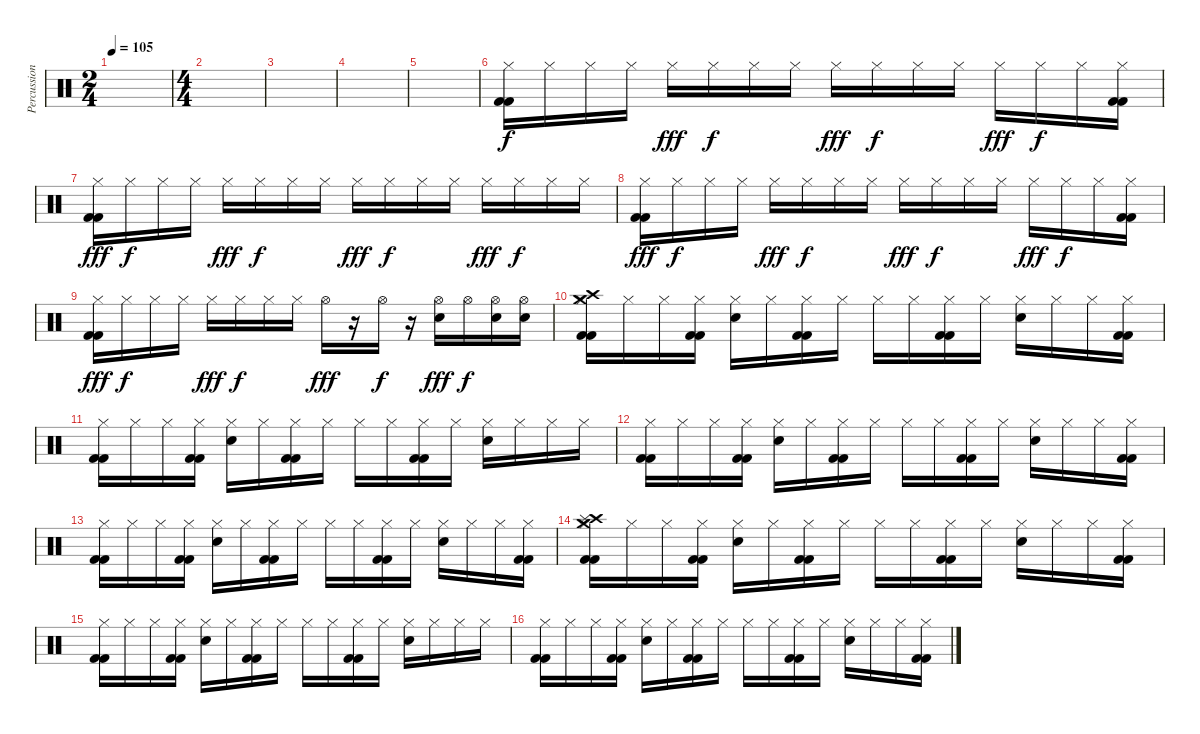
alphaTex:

\track ("Percussion" "Percussion") {instrument percussion}
\staff {score}
\articulation defaults
\ts (2 4)
\tempo 105
\clef neutral
\ks c
|
\ts (4 4)
|
|
|
|
("Kick (hit) 2" "Hi-Hat (closed)" "Kick (hit) 2").16 "Hi-Hat (closed)".16{dy f} "Hi-Hat (closed)".16 "Hi-Hat (closed)".16 "Hi-Hat (closed)".16{dy fff} "Hi-Hat (closed)".16{dy f} "Hi-Hat (closed)".16 "Hi-Hat (closed)".16 "Hi-Hat (closed)".16{dy fff} "Hi-Hat (closed)".16{dy f} "Hi-Hat (closed)".16 "Hi-Hat (closed)".16 "Hi-Hat (closed)".16{dy fff} "Hi-Hat (closed)".16{dy f} "Hi-Hat (closed)".16 ("Kick (hit) 2" "Hi-Hat (closed)" "Kick (hit) 2").16 |
("Kick (hit) 2" "Hi-Hat (closed)" "Kick (hit) 2").16{dy fff} "Hi-Hat (closed)".16{dy f} "Hi-Hat (closed)".16 "Hi-Hat (closed)".16 "Hi-Hat (closed)".16{dy fff} "Hi-Hat (closed)".16{dy f} "Hi-Hat (closed)".16 "Hi-Hat (closed)".16 "Hi-Hat (closed)".16{dy fff} "Hi-Hat (closed)".16{dy f} "Hi-Hat (closed)".16 "Hi-Hat (closed)".16 "Hi-Hat (closed)".16{dy fff} "Hi-Hat (closed)".16{dy f} "Hi-Hat (closed)".16 "Hi-Hat (closed)".16 |
("Kick (hit) 2" "Hi-Hat (closed)" "Kick (hit) 2").16{dy fff} "Hi-Hat (closed)".16{dy f} "Hi-Hat (closed)".16 "Hi-Hat (closed)".16 "Hi-Hat (closed)".16{dy fff} "Hi-Hat (closed)".16{dy f} "Hi-Hat (closed)".16 "Hi-Hat (closed)".16 "Hi-Hat (closed)".16{dy fff} "Hi-Hat (closed)".16{dy f} "Hi-Hat (closed)".16 "Hi-Hat (closed)".16 "Hi-Hat (closed)".16{dy fff} "Hi-Hat (closed)".16{dy f} "Hi-Hat (closed)".16 ("Kick (hit) 2" "Hi-Hat (closed)" "Kick (hit) 2").16 |
("Kick (hit) 2" "Hi-Hat (closed)" "Kick (hit) 2").16{dy fff} "Hi-Hat (closed)".16{dy f} "Hi-Hat (closed)".16 "Hi-Hat (closed)".16 "Hi-Hat (closed)".16{dy fff} "Hi-Hat (closed)".16{dy f} "Hi-Hat (closed)".16 "Hi-Hat (closed)".16 "Hi-Hat (open)".16{dy fff} r.16 "Hi-Hat (open)".16{dy f} r.16 ("Electric Snare (hit)" "Hi-Hat (open)").16{dy fff} "Hi-Hat (open)".16{dy f} ("Electric Snare (hit)" "Hi-Hat (open)").16 ("Electric Snare (hit)" "Hi-Hat (open)").16 |
("Hi-Hat (closed)" "Crash high (hit)" "Crash medium (hit)" "Kick (hit) 2" "Kick (hit) 2").16 "Hi-Hat (closed)".16 "Hi-Hat (closed)".16 ("Hi-Hat (closed)" "Kick (hit) 2" "Kick (hit) 2").16 ("Hi-Hat (closed)" "Electric Snare (hit)").16 "Hi-Hat (closed)".16 ("Hi-Hat (closed)" "Kick (hit) 2" "Kick (hit) 2").16 "Hi-Hat (closed)".16 "Hi-Hat (closed)".16 "Hi-Hat (closed)".16 ("Hi-Hat (closed)" "Kick (hit) 2" "Kick (hit) 2").16 "Hi-Hat (closed)".16 ("Hi-Hat (closed)" "Electric Snare (hit)").16 "Hi-Hat (closed)".16 "Hi-Hat (closed)".16 ("Hi-Hat (closed)" "Kick (hit) 2" "Kick (hit) 2").16 |
("Hi-Hat (closed)" "Kick (hit) 2" "Kick (hit) 2").16 "Hi-Hat (closed)".16 "Hi-Hat (closed)".16 ("Hi-Hat (closed)" "Kick (hit) 2" "Kick (hit) 2").16 ("Hi-Hat (closed)" "Electric Snare (hit)").16 "Hi-Hat (closed)".16 ("Hi-Hat (closed)" "Kick (hit) 2" "Kick (hit) 2").16 "Hi-Hat (closed)".16 "Hi-Hat (closed)".16 "Hi-Hat (closed)".16 ("Hi-Hat (closed)" "Kick (hit) 2" "Kick (hit) 2").16 "Hi-Hat (closed)".16 ("Hi-Hat (closed)" "Electric Snare (hit)").16 "Hi-Hat (closed)".16 "Hi-Hat (closed)".16 "Hi-Hat (closed)".16 |
("Hi-Hat (closed)" "Kick (hit) 2" "Kick (hit) 2").16 "Hi-Hat (closed)".16 "Hi-Hat (closed)".16 ("Hi-Hat (closed)" "Kick (hit) 2" "Kick (hit) 2").16 ("Hi-Hat (closed)" "Electric Snare (hit)").16 "Hi-Hat (closed)".16 ("Hi-Hat (closed)" "Kick (hit) 2" "Kick (hit) 2").16 "Hi-Hat (closed)".16 "Hi-Hat (closed)".16 "Hi-Hat (closed)".16 ("Hi-Hat (closed)" "Kick (hit) 2" "Kick (hit) 2").16 "Hi-Hat (closed)".16 ("Hi-Hat (closed)" "Electric Snare (hit)").16 "Hi-Hat (closed)".16 "Hi-Hat (closed)".16 ("Hi-Hat (closed)" "Kick (hit) 2" "Kick (hit) 2").16 |
("Hi-Hat (closed)" "Kick (hit) 2" "Kick (hit) 2").16 "Hi-Hat (closed)".16 "Hi-Hat (closed)".16 ("Hi-Hat (closed)" "Kick (hit) 2" "Kick (hit) 2").16 ("Hi-Hat (closed)" "Electric Snare (hit)").16 "Hi-Hat (closed)".16 ("Hi-Hat (closed)" "Kick (hit) 2" "Kick (hit) 2").16 "Hi-Hat (closed)".16 "Hi-Hat (closed)".16 "Hi-Hat (closed)".16 ("Hi-Hat (closed)" "Kick (hit) 2" "Kick (hit) 2").16 "Hi-Hat (closed)".16 ("Hi-Hat (closed)" "Electric Snare (hit)").16 "Hi-Hat (closed)".16 "Hi-Hat (closed)".16 ("Hi-Hat (closed)" "Kick (hit) 2" "Kick (hit) 2").16 |
("Hi-Hat (closed)" "Crash medium (hit)" "Crash high (hit)" "Splash (hit)" "Kick (hit) 2" "Kick (hit) 2").16 "Hi-Hat (closed)".16 "Hi-Hat (closed)".16 ("Hi-Hat (closed)" "Kick (hit) 2" "Kick (hit) 2").16 ("Hi-Hat (closed)" "Electric Snare (hit)").16 "Hi-Hat (closed)".16 ("Hi-Hat (closed)" "Kick (hit) 2" "Kick (hit) 2").16 "Hi-Hat (closed)".16 "Hi-Hat (closed)".16 "Hi-Hat (closed)".16 ("Hi-Hat (closed)" "Kick (hit) 2" "Kick (hit) 2").16 "Hi-Hat (closed)".16 ("Hi-Hat (closed)" "Electric Snare (hit)").16 "Hi-Hat (closed)".16 "Hi-Hat (closed)".16 ("Hi-Hat (closed)" "Kick (hit) 2" "Kick (hit) 2").16 |
("Hi-Hat (closed)" "Kick (hit) 2" "Kick (hit) 2").16 "Hi-Hat (closed)".16 "Hi-Hat (closed)".16 ("Hi-Hat (closed)" "Kick (hit) 2" "Kick (hit) 2").16 ("Hi-Hat (closed)" "Electric Snare (hit)").16 "Hi-Hat (closed)".16 ("Hi-Hat (closed)" "Kick (hit) 2" "Kick (hit) 2").16 "Hi-Hat (closed)".16 "Hi-Hat (closed)".16 "Hi-Hat (closed)".16 ("Hi-Hat (closed)" "Kick (hit) 2" "Kick (hit) 2").16 "Hi-Hat (closed)".16 ("Hi-Hat (closed)" "Electric Snare (hit)").16 "Hi-Hat (closed)".16 "Hi-Hat (closed)".16 "Hi-Hat (closed)".16 |
("Hi-Hat (closed)" "Kick (hit) 2" "Kick (hit) 2").16 "Hi-Hat (closed)".16 "Hi-Hat (closed)".16 ("Hi-Hat (closed)" "Kick (hit) 2" "Kick (hit) 2").16 ("Hi-Hat (closed)" "Electric Snare (hit)").16 "Hi-Hat (closed)".16 ("Hi-Hat (closed)" "Kick (hit) 2" "Kick (hit) 2").16 "Hi-Hat (closed)".16 "Hi-Hat (closed)".16 "Hi-Hat (closed)".16 ("Hi-Hat (closed)" "Kick (hit) 2" "Kick (hit) 2").16 "Hi-Hat (closed)".16 ("Hi-Hat (closed)" "Electric Snare (hit)").16 "Hi-Hat (closed)".16 "Hi-Hat (closed)".16 ("Hi-Hat (closed)" "Kick (hit) 2" "Kick (hit) 2").16
